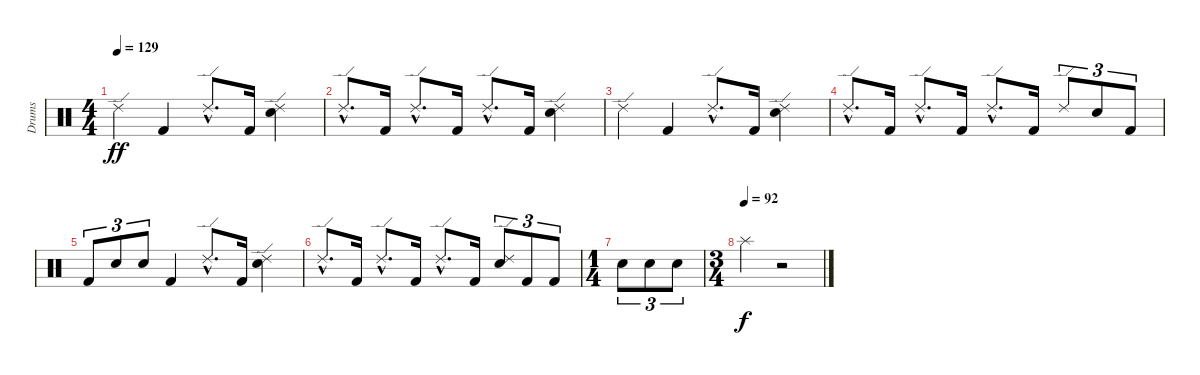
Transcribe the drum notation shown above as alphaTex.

\track ("Drums" "Drums") {instrument percussion}
\staff {score}
\articulation defaults
\ts (4 4)
\tempo 129
\clef neutral
\ks c "Ride (edge) 2".4{dy ff} "Kick (hit) 2".4 "Ride (edge) 2"{hac}.8{d} "Kick (hit) 2".16
("Electric Snare (hit)" "Ride (edge) 2").4 |
"Ride (edge) 2"{hac}.8{d} "Kick (hit) 2".16 "Ride (edge) 2"{hac}.8{d} "Kick (hit) 2".16 "Ride (edge) 2"{hac}.8{d} "Kick (hit) 2".16 ("Electric Snare (hit)" "Ride (edge) 2").4 |
"Ride (edge) 2".4 "Kick (hit) 2".4 "Ride (edge) 2"{hac}.8{d} "Kick (hit) 2".16 ("Electric Snare (hit)" "Ride (edge) 2").4 |
"Ride (edge) 2"{hac}.8{d} "Kick (hit) 2".16 "Ride (edge) 2"{hac}.8{d} "Kick (hit) 2".16 "Ride (edge) 2"{hac}.8{d} "Kick (hit) 2".16 "Ride (edge) 2".8{tu (3 2)} "Electric Snare (hit)".8{tu (3 2)} "Kick (hit) 2".8{tu (3 2)} |
"Kick (hit) 2".8{tu (3 2)} "Electric Snare (hit)".8{tu (3 2)} "Electric Snare (hit)".8{tu (3 2)} "Kick (hit) 2".4 "Ride (edge) 2"{hac}.8{d} "Kick (hit) 2".16 ("Electric Snare (hit)" "Ride (edge) 2").4 |
"Ride (edge) 2"{hac}.8{d} "Kick (hit) 2".16 "Ride (edge) 2"{hac}.8{d} "Kick (hit) 2".16 "Ride (edge) 2"{hac}.8{d} "Kick (hit) 2".16 ("Electric Snare (hit)" "Ride (edge) 2").8{tu (3 2)} "Kick (hit) 2".8{tu (3 2)} "Kick (hit) 2".8{tu (3 2)} |
\ts (1 4)
"Electric Snare (hit)".8{tu (3 2)} "Electric Snare (hit)".8{tu (3 2)} "Electric Snare (hit)".8{tu (3 2)} |
\ts (3 4)
\tempo (92)
"Splash (hit)".4{dy f} r.2
